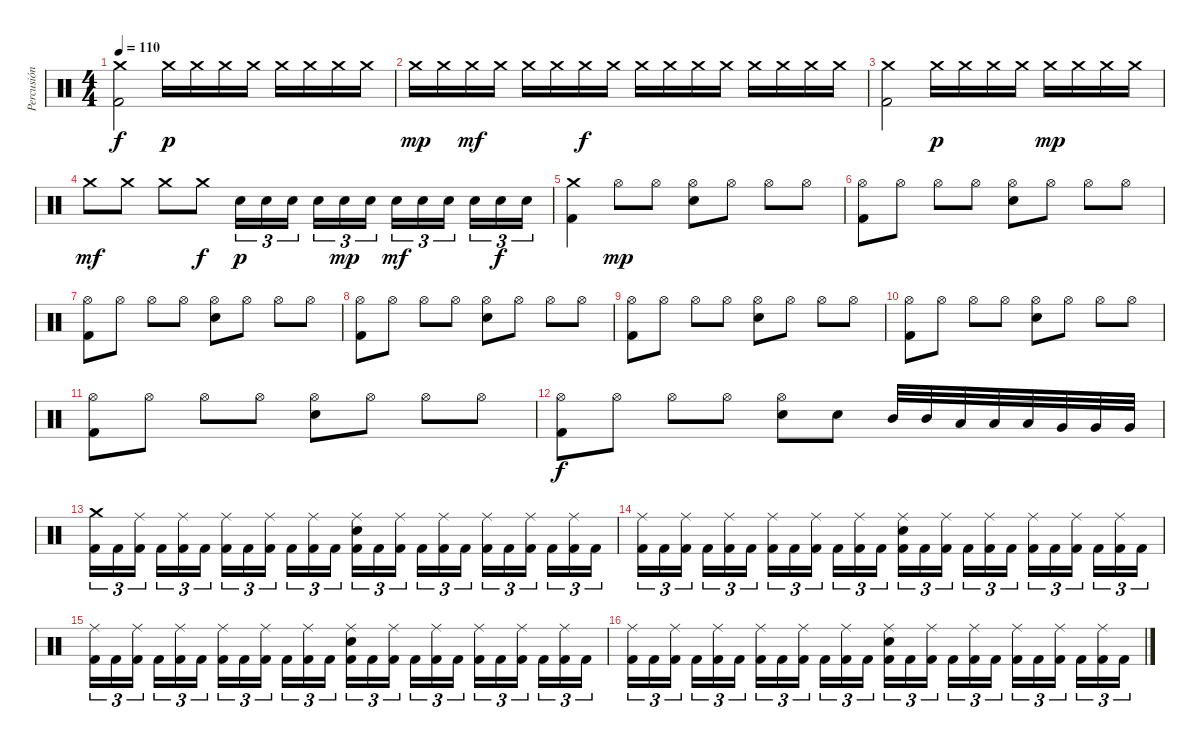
\track ("Percusión" "Percusión") {instrument percussion}
\staff {score}
\articulation defaults
\ts (4 4)
\tempo 110
\clef neutral
\ks c
("Kick (hit) 2" "Crash medium (hit)").2{dy f} "Crash medium (hit)".16{dy p} "Crash medium (hit)".16 "Crash medium (hit)".16 "Crash medium (hit)".16 "Crash medium (hit)".16 "Crash medium (hit)".16 "Crash medium (hit)".16 "Crash medium (hit)".16 |
"Crash medium (hit)".16{dy mp} "Crash medium (hit)".16 "Crash medium (hit)".16{dy mf} "Crash medium (hit)".16 "Crash medium (hit)".16 "Crash medium (hit)".16 "Crash medium (hit)".16{dy f} "Crash medium (hit)".16 "Crash medium (hit)".16 "Crash medium (hit)".16 "Crash medium (hit)".16 "Crash medium (hit)".16 "Crash medium (hit)".16 "Crash medium (hit)".16 "Crash medium (hit)".16 "Crash medium (hit)".16 |
("Kick (hit) 2" "Crash medium (hit)").2 "Crash medium (hit)".16{dy p} "Crash medium (hit)".16 "Crash medium (hit)".16 "Crash medium (hit)".16 "Crash medium (hit)".16{dy mp} "Crash medium (hit)".16 "Crash medium (hit)".16 "Crash medium (hit)".16 |
"Crash medium (hit)".8{dy mf} "Crash medium (hit)".8 "Crash medium (hit)".8 "Crash medium (hit)".8{dy f} "Electric Snare (hit)".16{tu (3 2) dy p} "Electric Snare (hit)".16{tu (3 2)} "Electric Snare (hit)".16{tu (3 2) beam splitsecondary} "Electric Snare (hit)".16{tu (3 2)} "Electric Snare (hit)".16{tu (3 2) dy mp} "Electric Snare (hit)".16{tu (3 2)} "Electric Snare (hit)".16{tu (3 2) dy mf} "Electric Snare (hit)".16{tu (3 2)} "Electric Snare (hit)".16{tu (3 2) beam splitsecondary} "Electric Snare (hit)".16{tu (3 2)} "Electric Snare (hit)".16{tu (3 2) dy f} "Electric Snare (hit)".16{tu (3 2)} |
("Kick (hit) 2" "Crash medium (hit)").4 "Hi-Hat (open)".8{dy mp} "Hi-Hat (open)".8 ("Electric Snare (hit)" "Hi-Hat (open)").8 "Hi-Hat (open)".8 "Hi-Hat (open)".8 "Hi-Hat (open)".8 |
("Kick (hit) 2" "Hi-Hat (open)").8 "Hi-Hat (open)".8 "Hi-Hat (open)".8 "Hi-Hat (open)".8 ("Electric Snare (hit)" "Hi-Hat (open)").8 "Hi-Hat (open)".8 "Hi-Hat (open)".8 "Hi-Hat (open)".8 |
("Kick (hit) 2" "Hi-Hat (open)").8 "Hi-Hat (open)".8 "Hi-Hat (open)".8 "Hi-Hat (open)".8 ("Electric Snare (hit)" "Hi-Hat (open)").8 "Hi-Hat (open)".8 "Hi-Hat (open)".8 "Hi-Hat (open)".8 |
("Kick (hit) 2" "Hi-Hat (open)").8 "Hi-Hat (open)".8 "Hi-Hat (open)".8 "Hi-Hat (open)".8 ("Electric Snare (hit)" "Hi-Hat (open)").8 "Hi-Hat (open)".8 "Hi-Hat (open)".8 "Hi-Hat (open)".8 |
("Kick (hit) 2" "Hi-Hat (open)").8 "Hi-Hat (open)".8 "Hi-Hat (open)".8 "Hi-Hat (open)".8 ("Electric Snare (hit)" "Hi-Hat (open)").8 "Hi-Hat (open)".8 "Hi-Hat (open)".8 "Hi-Hat (open)".8 |
("Kick (hit) 2" "Hi-Hat (open)").8 "Hi-Hat (open)".8 "Hi-Hat (open)".8 "Hi-Hat (open)".8 ("Electric Snare (hit)" "Hi-Hat (open)").8 "Hi-Hat (open)".8 "Hi-Hat (open)".8 "Hi-Hat (open)".8 |
("Kick (hit) 2" "Hi-Hat (open)").8 "Hi-Hat (open)".8 "Hi-Hat (open)".8 "Hi-Hat (open)".8 ("Electric Snare (hit)" "Hi-Hat (open)").8 "Hi-Hat (open)".8 "Hi-Hat (open)".8 "Hi-Hat (open)".8 |
("Kick (hit) 2" "Hi-Hat (open)").8{dy f} "Hi-Hat (open)".8 "Hi-Hat (open)".8 "Hi-Hat (open)".8 ("Electric Snare (hit)" "Hi-Hat (open)").8 "Electric Snare (hit)".8 "Mid Tom (hit)".32 "Mid Tom (hit)".32 "Low Tom (hit)".32 "Low Tom (hit)".32 "Low Tom (hit)".32 "Very Low Tom (hit)".32 "Very Low Tom (hit)".32 "Very Low Tom (hit)".32 |
("Crash medium (hit)" "Kick (hit) 2").16{tu (3 2)} "Kick (hit) 2".16{tu (3 2)} ("Ride (middle)" "Kick (hit) 2").16{tu (3 2) beam splitsecondary} "Kick (hit) 2".16{tu (3 2)} ("Ride (middle)" "Kick (hit) 2").16{tu (3 2)} "Kick (hit) 2".16{tu (3 2)} ("Ride (middle)" "Kick (hit) 2").16{tu (3 2)} "Kick (hit) 2".16{tu (3 2)} ("Ride (middle)" "Kick (hit) 2").16{tu (3 2) beam splitsecondary} "Kick (hit) 2".16{tu (3 2)} ("Ride (middle)" "Kick (hit) 2").16{tu (3 2)} "Kick (hit) 2".16{tu (3 2)} ("Electric Snare (hit)" "Ride (middle)" "Kick (hit) 2").16{tu (3 2)} "Kick (hit) 2".16{tu (3 2)} ("Ride (middle)" "Kick (hit) 2").16{tu (3 2) beam splitsecondary} "Kick (hit) 2".16{tu (3 2)} ("Ride (middle)" "Kick (hit) 2").16{tu (3 2)} "Kick (hit) 2".16{tu (3 2)} ("Ride (middle)" "Kick (hit) 2").16{tu (3 2)} "Kick (hit) 2".16{tu (3 2)} ("Ride (middle)" "Kick (hit) 2").16{tu (3 2) beam splitsecondary} "Kick (hit) 2".16{tu (3 2)} ("Ride (middle)" "Kick (hit) 2").16{tu (3 2)} "Kick (hit) 2".16{tu (3 2)} |
("Ride (middle)" "Kick (hit) 2").16{tu (3 2)} "Kick (hit) 2".16{tu (3 2)} ("Ride (middle)" "Kick (hit) 2").16{tu (3 2) beam splitsecondary} "Kick (hit) 2".16{tu (3 2)} ("Ride (middle)" "Kick (hit) 2").16{tu (3 2)} "Kick (hit) 2".16{tu (3 2)} ("Ride (middle)" "Kick (hit) 2").16{tu (3 2)} "Kick (hit) 2".16{tu (3 2)} ("Ride (middle)" "Kick (hit) 2").16{tu (3 2) beam splitsecondary} "Kick (hit) 2".16{tu (3 2)} ("Ride (middle)" "Kick (hit) 2").16{tu (3 2)} "Kick (hit) 2".16{tu (3 2)} ("Electric Snare (hit)" "Ride (middle)" "Kick (hit) 2").16{tu (3 2)} "Kick (hit) 2".16{tu (3 2)} ("Ride (middle)" "Kick (hit) 2").16{tu (3 2) beam splitsecondary} "Kick (hit) 2".16{tu (3 2)} ("Ride (middle)" "Kick (hit) 2").16{tu (3 2)} "Kick (hit) 2".16{tu (3 2)} ("Ride (middle)" "Kick (hit) 2").16{tu (3 2)} "Kick (hit) 2".16{tu (3 2)} ("Ride (middle)" "Kick (hit) 2").16{tu (3 2) beam splitsecondary} "Kick (hit) 2".16{tu (3 2)} ("Ride (middle)" "Kick (hit) 2").16{tu (3 2)} "Kick (hit) 2".16{tu (3 2)} |
("Ride (middle)" "Kick (hit) 2").16{tu (3 2)} "Kick (hit) 2".16{tu (3 2)} ("Ride (middle)" "Kick (hit) 2").16{tu (3 2) beam splitsecondary} "Kick (hit) 2".16{tu (3 2)} ("Ride (middle)" "Kick (hit) 2").16{tu (3 2)} "Kick (hit) 2".16{tu (3 2)} ("Ride (middle)" "Kick (hit) 2").16{tu (3 2)} "Kick (hit) 2".16{tu (3 2)} ("Ride (middle)" "Kick (hit) 2").16{tu (3 2) beam splitsecondary} "Kick (hit) 2".16{tu (3 2)} ("Ride (middle)" "Kick (hit) 2").16{tu (3 2)} "Kick (hit) 2".16{tu (3 2)} ("Electric Snare (hit)" "Ride (middle)" "Kick (hit) 2").16{tu (3 2)} "Kick (hit) 2".16{tu (3 2)} ("Ride (middle)" "Kick (hit) 2").16{tu (3 2) beam splitsecondary} "Kick (hit) 2".16{tu (3 2)} ("Ride (middle)" "Kick (hit) 2").16{tu (3 2)} "Kick (hit) 2".16{tu (3 2)} ("Ride (middle)" "Kick (hit) 2").16{tu (3 2)} "Kick (hit) 2".16{tu (3 2)} ("Ride (middle)" "Kick (hit) 2").16{tu (3 2) beam splitsecondary} "Kick (hit) 2".16{tu (3 2)} ("Ride (middle)" "Kick (hit) 2").16{tu (3 2)} "Kick (hit) 2".16{tu (3 2)} |
("Ride (middle)" "Kick (hit) 2").16{tu (3 2)} "Kick (hit) 2".16{tu (3 2)} ("Ride (middle)" "Kick (hit) 2").16{tu (3 2) beam splitsecondary} "Kick (hit) 2".16{tu (3 2)} ("Ride (middle)" "Kick (hit) 2").16{tu (3 2)} "Kick (hit) 2".16{tu (3 2)} ("Ride (middle)" "Kick (hit) 2").16{tu (3 2)} "Kick (hit) 2".16{tu (3 2)} ("Ride (middle)" "Kick (hit) 2").16{tu (3 2) beam splitsecondary} "Kick (hit) 2".16{tu (3 2)} ("Ride (middle)" "Kick (hit) 2").16{tu (3 2)} "Kick (hit) 2".16{tu (3 2)} ("Electric Snare (hit)" "Ride (middle)" "Kick (hit) 2").16{tu (3 2)} "Kick (hit) 2".16{tu (3 2)} ("Ride (middle)" "Kick (hit) 2").16{tu (3 2) beam splitsecondary} "Kick (hit) 2".16{tu (3 2)} ("Ride (middle)" "Kick (hit) 2").16{tu (3 2)} "Kick (hit) 2".16{tu (3 2)} ("Ride (middle)" "Kick (hit) 2").16{tu (3 2)} "Kick (hit) 2".16{tu (3 2)} ("Ride (middle)" "Kick (hit) 2").16{tu (3 2) beam splitsecondary} "Kick (hit) 2".16{tu (3 2)} ("Ride (middle)" "Kick (hit) 2").16{tu (3 2)} "Kick (hit) 2".16{tu (3 2)}
